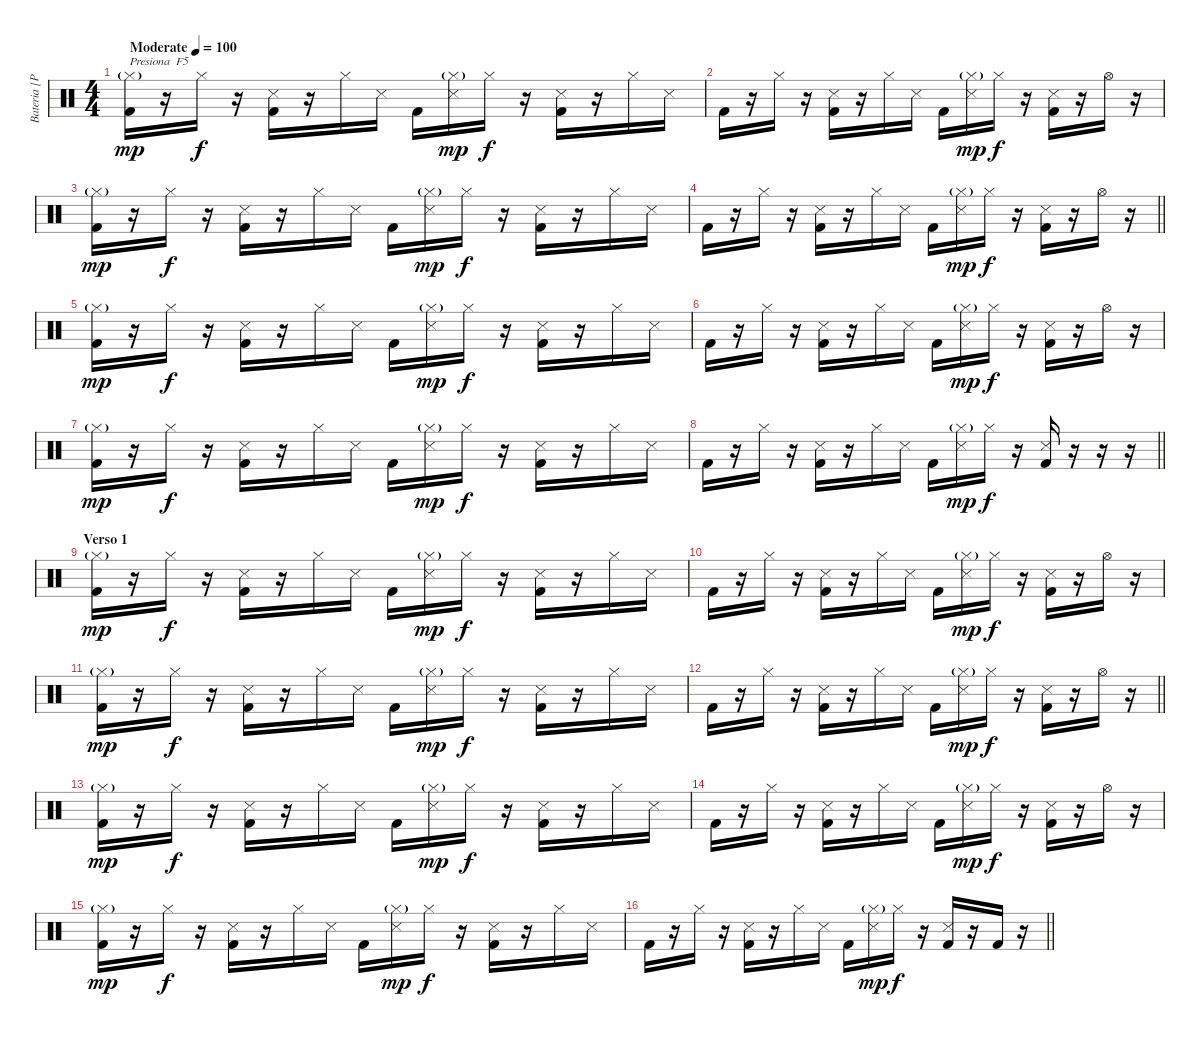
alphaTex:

\track ("Bateria [Paul]" "Bateria [P") {instrument percussion}
\staff {score}
\articulation defaults
\ts (4 4)
\tempo (100 "Moderate")
\clef neutral
\ks c
("Hi-Hat (closed)"{g} "Kick (hit) 2").16{txt "Presiona  F5" dy mp} r.16 "Hi-Hat (closed)".16{dy f} r.16 ("Snare (side stick) 3" "Kick (hit) 2").16 r.16 "Hi-Hat (closed)".16 "Snare (side stick) 3".16 "Kick (hit) 2".16 ("Hi-Hat (closed)"{g} "Snare (side stick) 3").16{dy mp} "Hi-Hat (closed)".16{dy f} r.16 ("Snare (side stick) 3" "Kick (hit) 2").16 r.16 "Hi-Hat (closed)".16 "Snare (side stick) 3".16 |
"Kick (hit) 2".16 r.16 "Hi-Hat (closed)".16 r.16 ("Snare (side stick) 3" "Kick (hit) 2").16 r.16 "Hi-Hat (closed)".16 "Snare (side stick) 3".16 "Kick (hit) 2".16 ("Hi-Hat (closed)"{g} "Snare (side stick) 3").16{dy mp} "Hi-Hat (closed)".16{dy f} r.16 ("Snare (side stick) 3" "Kick (hit) 2").16 r.16 "Hi-Hat (open)".16 r.16 |
("Hi-Hat (closed)"{g} "Kick (hit) 2").16{dy mp} r.16 "Hi-Hat (closed)".16{dy f} r.16 ("Snare (side stick) 3" "Kick (hit) 2").16 r.16 "Hi-Hat (closed)".16 "Snare (side stick) 3".16 "Kick (hit) 2".16 ("Hi-Hat (closed)"{g} "Snare (side stick) 3").16{dy mp} "Hi-Hat (closed)".16{dy f} r.16 ("Snare (side stick) 3" "Kick (hit) 2").16 r.16 "Hi-Hat (closed)".16 "Snare (side stick) 3".16 |
\barLineRight lightlight "Kick (hit) 2".16
r.16 "Hi-Hat (closed)".16 r.16 ("Snare (side stick) 3" "Kick (hit) 2").16 r.16 "Hi-Hat (closed)".16 "Snare (side stick) 3".16 "Kick (hit) 2".16 ("Hi-Hat (closed)"{g} "Snare (side stick) 3").16{dy mp} "Hi-Hat (closed)".16{dy f} r.16 ("Snare (side stick) 3" "Kick (hit) 2").16 r.16 "Hi-Hat (open)".16 r.16 |
("Hi-Hat (closed)"{g} "Kick (hit) 2").16{dy mp} r.16 "Hi-Hat (closed)".16{dy f} r.16 ("Snare (side stick) 3" "Kick (hit) 2").16 r.16 "Hi-Hat (closed)".16 "Snare (side stick) 3".16 "Kick (hit) 2".16 ("Hi-Hat (closed)"{g} "Snare (side stick) 3").16{dy mp} "Hi-Hat (closed)".16{dy f} r.16 ("Snare (side stick) 3" "Kick (hit) 2").16 r.16 "Hi-Hat (closed)".16 "Snare (side stick) 3".16 |
"Kick (hit) 2".16 r.16 "Hi-Hat (closed)".16 r.16 ("Snare (side stick) 3" "Kick (hit) 2").16 r.16 "Hi-Hat (closed)".16 "Snare (side stick) 3".16 "Kick (hit) 2".16 ("Hi-Hat (closed)"{g} "Snare (side stick) 3").16{dy mp} "Hi-Hat (closed)".16{dy f} r.16 ("Snare (side stick) 3" "Kick (hit) 2").16 r.16 "Hi-Hat (open)".16 r.16 |
("Hi-Hat (closed)"{g} "Kick (hit) 2").16{dy mp} r.16 "Hi-Hat (closed)".16{dy f} r.16 ("Snare (side stick) 3" "Kick (hit) 2").16 r.16 "Hi-Hat (closed)".16 "Snare (side stick) 3".16 "Kick (hit) 2".16 ("Hi-Hat (closed)"{g} "Snare (side stick) 3").16{dy mp} "Hi-Hat (closed)".16{dy f} r.16 ("Snare (side stick) 3" "Kick (hit) 2").16 r.16 "Hi-Hat (closed)".16 "Snare (side stick) 3".16 |
\barLineRight lightlight "Kick (hit) 2".16
r.16 "Hi-Hat (closed)".16 r.16 ("Snare (side stick) 3" "Kick (hit) 2").16 r.16 "Hi-Hat (closed)".16 "Snare (side stick) 3".16 "Kick (hit) 2".16 ("Hi-Hat (closed)"{g} "Snare (side stick) 3").16{dy mp} "Hi-Hat (closed)".16{dy f} r.16 ("Snare (side stick) 3" "Kick (hit) 2").16 r.16 r.16 r.16 |
\section ("" "Verso 1")
("Hi-Hat (closed)"{g} "Kick (hit) 2").16{dy mp} r.16 "Hi-Hat (closed)".16{dy f} r.16 ("Snare (side stick) 3" "Kick (hit) 2").16 r.16 "Hi-Hat (closed)".16 "Snare (side stick) 3".16 "Kick (hit) 2".16 ("Hi-Hat (closed)"{g} "Snare (side stick) 3").16{dy mp} "Hi-Hat (closed)".16{dy f} r.16 ("Snare (side stick) 3" "Kick (hit) 2").16 r.16 "Hi-Hat (closed)".16 "Snare (side stick) 3".16 |
"Kick (hit) 2".16 r.16 "Hi-Hat (closed)".16 r.16 ("Snare (side stick) 3" "Kick (hit) 2").16 r.16 "Hi-Hat (closed)".16 "Snare (side stick) 3".16 "Kick (hit) 2".16 ("Hi-Hat (closed)"{g} "Snare (side stick) 3").16{dy mp} "Hi-Hat (closed)".16{dy f} r.16 ("Snare (side stick) 3" "Kick (hit) 2").16 r.16 "Hi-Hat (open)".16 r.16 |
("Hi-Hat (closed)"{g} "Kick (hit) 2").16{dy mp} r.16 "Hi-Hat (closed)".16{dy f} r.16 ("Snare (side stick) 3" "Kick (hit) 2").16 r.16 "Hi-Hat (closed)".16 "Snare (side stick) 3".16 "Kick (hit) 2".16 ("Hi-Hat (closed)"{g} "Snare (side stick) 3").16{dy mp} "Hi-Hat (closed)".16{dy f} r.16 ("Snare (side stick) 3" "Kick (hit) 2").16 r.16 "Hi-Hat (closed)".16 "Snare (side stick) 3".16 |
\barLineRight lightlight "Kick (hit) 2".16
r.16 "Hi-Hat (closed)".16 r.16 ("Snare (side stick) 3" "Kick (hit) 2").16 r.16 "Hi-Hat (closed)".16 "Snare (side stick) 3".16 "Kick (hit) 2".16 ("Hi-Hat (closed)"{g} "Snare (side stick) 3").16{dy mp} "Hi-Hat (closed)".16{dy f} r.16 ("Snare (side stick) 3" "Kick (hit) 2").16 r.16 "Hi-Hat (open)".16 r.16 |
("Hi-Hat (closed)"{g} "Kick (hit) 2").16{dy mp} r.16 "Hi-Hat (closed)".16{dy f} r.16 ("Snare (side stick) 3" "Kick (hit) 2").16 r.16 "Hi-Hat (closed)".16 "Snare (side stick) 3".16 "Kick (hit) 2".16 ("Hi-Hat (closed)"{g} "Snare (side stick) 3").16{dy mp} "Hi-Hat (closed)".16{dy f} r.16 ("Snare (side stick) 3" "Kick (hit) 2").16 r.16 "Hi-Hat (closed)".16 "Snare (side stick) 3".16 |
"Kick (hit) 2".16 r.16 "Hi-Hat (closed)".16 r.16 ("Snare (side stick) 3" "Kick (hit) 2").16 r.16 "Hi-Hat (closed)".16 "Snare (side stick) 3".16 "Kick (hit) 2".16 ("Hi-Hat (closed)"{g} "Snare (side stick) 3").16{dy mp} "Hi-Hat (closed)".16{dy f} r.16 ("Snare (side stick) 3" "Kick (hit) 2").16 r.16 "Hi-Hat (open)".16 r.16 |
("Hi-Hat (closed)"{g} "Kick (hit) 2").16{dy mp} r.16 "Hi-Hat (closed)".16{dy f} r.16 ("Snare (side stick) 3" "Kick (hit) 2").16 r.16 "Hi-Hat (closed)".16 "Snare (side stick) 3".16 "Kick (hit) 2".16 ("Hi-Hat (closed)"{g} "Snare (side stick) 3").16{dy mp} "Hi-Hat (closed)".16{dy f} r.16 ("Snare (side stick) 3" "Kick (hit) 2").16 r.16 "Hi-Hat (closed)".16 "Snare (side stick) 3".16 |
\barLineRight lightlight "Kick (hit) 2".16
r.16 "Hi-Hat (closed)".16 r.16 ("Snare (side stick) 3" "Kick (hit) 2").16 r.16 "Hi-Hat (closed)".16 "Snare (side stick) 3".16 "Kick (hit) 2".16 ("Hi-Hat (closed)"{g} "Snare (side stick) 3").16{dy mp} "Hi-Hat (closed)".16{dy f} r.16 ("Snare (side stick) 3" "Kick (hit) 2").16 r.16 "Kick (hit) 2".16 r.16
